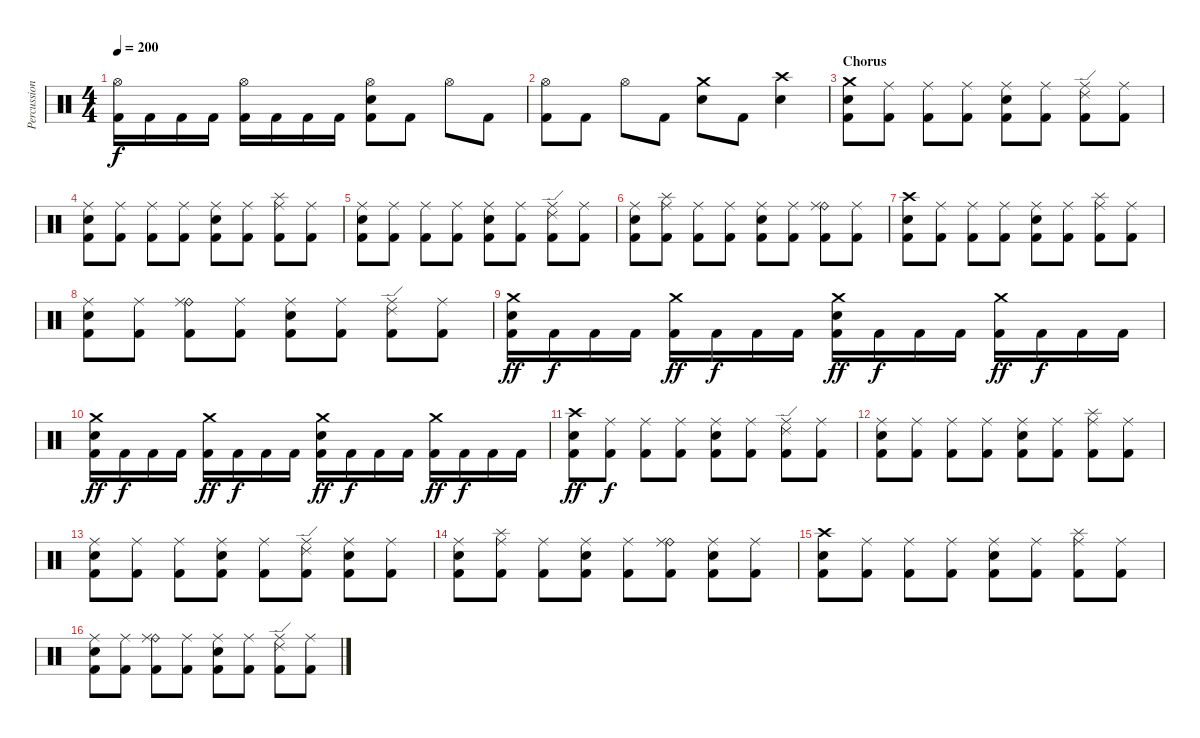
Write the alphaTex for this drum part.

\track ("Percussions" "Percussion") {instrument percussion}
\staff {score}
\articulation defaults
\ts (4 4)
\tempo 200
\clef neutral
\ks c
("Hi-Hat (open)" "Kick (hit) 2").16{dy f} "Kick (hit) 2".16 "Kick (hit) 2".16 "Kick (hit) 2".16 ("Hi-Hat (open)" "Kick (hit) 2").16 "Kick (hit) 2".16 "Kick (hit) 2".16 "Kick (hit) 2".16 ("Hi-Hat (open)" "Electric Snare (hit)" "Kick (hit) 2").8 "Kick (hit) 2".8 "Hi-Hat (open)".8 "Kick (hit) 2".8 |
("Hi-Hat (open)" "Kick (hit) 2").8 "Kick (hit) 2".8 "Hi-Hat (open)".8 "Kick (hit) 2".8 ("Crash medium (hit)" "Electric Snare (hit)").8 "Kick (hit) 2".8 ("Crash high (hit)" "Electric Snare (hit)").4 |
\section ("" "Chorus")
("Crash medium (hit)" "Electric Snare (hit)" "Kick (hit) 2").8 ("Ride (middle)" "Kick (hit) 2").8 ("Ride (middle)" "Kick (hit) 2").8 ("Ride (middle)" "Kick (hit) 2").8 ("Ride (middle)" "Electric Snare (hit)" "Kick (hit) 2").8 ("Ride (middle)" "Kick (hit) 2").8 ("Ride (edge) 2" "Ride (middle)" "Kick (hit) 2").8 ("Ride (middle)" "Kick (hit) 2").8 |
("Ride (middle)" "Electric Snare (hit)" "Kick (hit) 2").8 ("Ride (middle)" "Kick (hit) 2").8 ("Ride (middle)" "Kick (hit) 2").8 ("Ride (middle)" "Kick (hit) 2").8 ("Ride (middle)" "Electric Snare (hit)" "Kick (hit) 2").8 ("Ride (middle)" "Kick (hit) 2").8 ("Splash (hit)" "Ride (middle)" "Kick (hit) 2").8 ("Ride (middle)" "Kick (hit) 2").8 |
("Ride (middle)" "Electric Snare (hit)" "Kick (hit) 2").8 ("Ride (middle)" "Kick (hit) 2").8 ("Ride (middle)" "Kick (hit) 2").8 ("Ride (middle)" "Kick (hit) 2").8 ("Ride (middle)" "Electric Snare (hit)" "Kick (hit) 2").8 ("Ride (middle)" "Kick (hit) 2").8 ("Ride (edge) 2" "Ride (middle)" "Kick (hit) 2").8 ("Ride (middle)" "Kick (hit) 2").8 |
("Ride (middle)" "Electric Snare (hit)" "Kick (hit) 2").8 ("Splash (hit)" "Ride (middle)" "Kick (hit) 2").8 ("Ride (middle)" "Kick (hit) 2").8 ("Ride (middle)" "Kick (hit) 2").8 ("Ride (middle)" "Electric Snare (hit)" "Kick (hit) 2").8 ("Ride (middle)" "Kick (hit) 2").8 ("Ride (bell)" "Ride (middle)" "Kick (hit) 2").8 ("Ride (middle)" "Kick (hit) 2").8 |
("Crash high (hit)" "Electric Snare (hit)" "Kick (hit) 2").8 ("Ride (middle)" "Kick (hit) 2").8 ("Ride (middle)" "Kick (hit) 2").8 ("Ride (middle)" "Kick (hit) 2").8 ("Ride (middle)" "Electric Snare (hit)" "Kick (hit) 2").8 ("Ride (middle)" "Kick (hit) 2").8 ("Splash (hit)" "Ride (middle)" "Kick (hit) 2").8 ("Ride (middle)" "Kick (hit) 2").8 |
("Ride (middle)" "Electric Snare (hit)" "Kick (hit) 2").8 ("Ride (middle)" "Kick (hit) 2").8 ("Ride (bell)" "Ride (middle)" "Kick (hit) 2").8 ("Ride (middle)" "Kick (hit) 2").8 ("Ride (middle)" "Electric Snare (hit)" "Kick (hit) 2").8 ("Ride (middle)" "Kick (hit) 2").8 ("Ride (edge) 2" "Ride (middle)" "Kick (hit) 2").8 ("Ride (middle)" "Kick (hit) 2").8 |
("Crash medium (hit)" "Electric Snare (hit)" "Kick (hit) 2").16{dy ff} "Kick (hit) 2".16{dy f} "Kick (hit) 2".16 "Kick (hit) 2".16 ("Crash medium (hit)" "Kick (hit) 2").16{dy ff} "Kick (hit) 2".16{dy f} "Kick (hit) 2".16 "Kick (hit) 2".16 ("Crash medium (hit)" "Electric Snare (hit)" "Kick (hit) 2").16{dy ff} "Kick (hit) 2".16{dy f} "Kick (hit) 2".16 "Kick (hit) 2".16 ("Crash medium (hit)" "Kick (hit) 2").16{dy ff} "Kick (hit) 2".16{dy f} "Kick (hit) 2".16 "Kick (hit) 2".16 |
("Crash medium (hit)" "Electric Snare (hit)" "Kick (hit) 2").16{dy ff} "Kick (hit) 2".16{dy f} "Kick (hit) 2".16 "Kick (hit) 2".16 ("Crash medium (hit)" "Kick (hit) 2").16{dy ff} "Kick (hit) 2".16{dy f} "Kick (hit) 2".16 "Kick (hit) 2".16 ("Crash medium (hit)" "Electric Snare (hit)" "Kick (hit) 2").16{dy ff} "Kick (hit) 2".16{dy f} "Kick (hit) 2".16 "Kick (hit) 2".16 ("Crash medium (hit)" "Kick (hit) 2").16{dy ff} "Kick (hit) 2".16{dy f} "Kick (hit) 2".16 "Kick (hit) 2".16 |
("Crash high (hit)" "Electric Snare (hit)" "Kick (hit) 2").8{dy ff} ("Ride (middle)" "Kick (hit) 2").8{dy f} ("Ride (middle)" "Kick (hit) 2").8 ("Ride (middle)" "Kick (hit) 2").8 ("Ride (middle)" "Electric Snare (hit)" "Kick (hit) 2").8 ("Ride (middle)" "Kick (hit) 2").8 ("Ride (edge) 2" "Ride (middle)" "Kick (hit) 2").8 ("Ride (middle)" "Kick (hit) 2").8 |
("Ride (middle)" "Electric Snare (hit)" "Kick (hit) 2").8 ("Ride (middle)" "Kick (hit) 2").8 ("Ride (middle)" "Kick (hit) 2").8 ("Ride (middle)" "Kick (hit) 2").8 ("Ride (middle)" "Electric Snare (hit)" "Kick (hit) 2").8 ("Ride (middle)" "Kick (hit) 2").8 ("Splash (hit)" "Ride (middle)" "Kick (hit) 2").8 ("Ride (middle)" "Kick (hit) 2").8 |
("Ride (middle)" "Electric Snare (hit)" "Kick (hit) 2").8 ("Ride (middle)" "Kick (hit) 2").8 ("Ride (middle)" "Kick (hit) 2").8 ("Ride (middle)" "Electric Snare (hit)" "Kick (hit) 2").8 ("Ride (middle)" "Kick (hit) 2").8 ("Ride (edge) 2" "Ride (middle)" "Kick (hit) 2").8 ("Ride (middle)" "Electric Snare (hit)" "Kick (hit) 2").8 ("Ride (middle)" "Kick (hit) 2").8 |
("Ride (middle)" "Electric Snare (hit)" "Kick (hit) 2").8 ("Splash (hit)" "Ride (middle)" "Kick (hit) 2").8 ("Ride (middle)" "Kick (hit) 2").8 ("Ride (middle)" "Electric Snare (hit)" "Kick (hit) 2").8 ("Ride (middle)" "Kick (hit) 2").8 ("Ride (bell)" "Ride (middle)" "Kick (hit) 2").8 ("Ride (middle)" "Electric Snare (hit)" "Kick (hit) 2").8 ("Ride (middle)" "Kick (hit) 2").8 |
("Crash high (hit)" "Electric Snare (hit)" "Kick (hit) 2").8 ("Ride (middle)" "Kick (hit) 2").8 ("Ride (middle)" "Kick (hit) 2").8 ("Ride (middle)" "Kick (hit) 2").8 ("Ride (middle)" "Electric Snare (hit)" "Kick (hit) 2").8 ("Ride (middle)" "Kick (hit) 2").8 ("Splash (hit)" "Ride (middle)" "Kick (hit) 2").8 ("Ride (middle)" "Kick (hit) 2").8 |
("Ride (middle)" "Electric Snare (hit)" "Kick (hit) 2").8 ("Ride (middle)" "Kick (hit) 2").8 ("Ride (bell)" "Ride (middle)" "Kick (hit) 2").8 ("Ride (middle)" "Kick (hit) 2").8 ("Ride (middle)" "Electric Snare (hit)" "Kick (hit) 2").8 ("Ride (middle)" "Kick (hit) 2").8 ("Ride (edge) 2" "Ride (middle)" "Kick (hit) 2").8 ("Ride (middle)" "Kick (hit) 2").8
